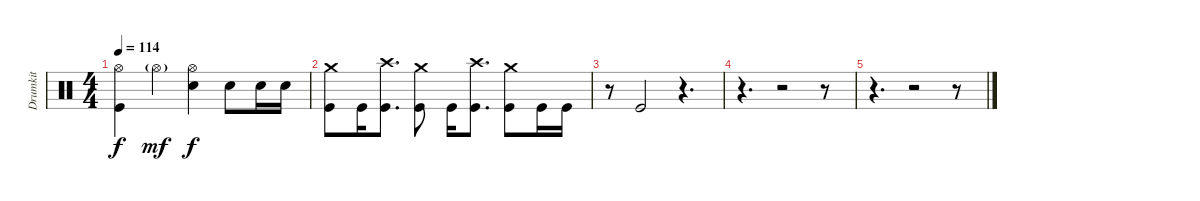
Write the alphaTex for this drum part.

\track ("Drumkit" "Drumkit") {instrument percussion}
\staff {score}
\articulation defaults
\ts (4 4)
\tempo 114
\clef neutral
\ks c
("Hi-Hat (open)" "Kick (hit)").4{dy f} "Hi-Hat (open)"{g}.4{dy mf} ("Hi-Hat (open)" "Snare (hit) 2").4{dy f} "Snare (hit) 2".8 "Snare (hit) 2".16 "Snare (hit) 2".16 |
("Crash medium (hit)" "Kick (hit)").8 "Kick (hit)".16 ("Crash high (hit)" "Kick (hit)").8{d} ("Crash medium (hit)" "Kick (hit)").8 "Kick (hit)".16 ("Crash high (hit)" "Kick (hit)").8{d} ("Crash medium (hit)" "Kick (hit)").8 "Kick (hit)".16 "Kick (hit)".16 |
r.8 "Kick (hit)".2 r.4{d} |
r.4{d} r.2 r.8 |
r.4{d} r.2 r.8
